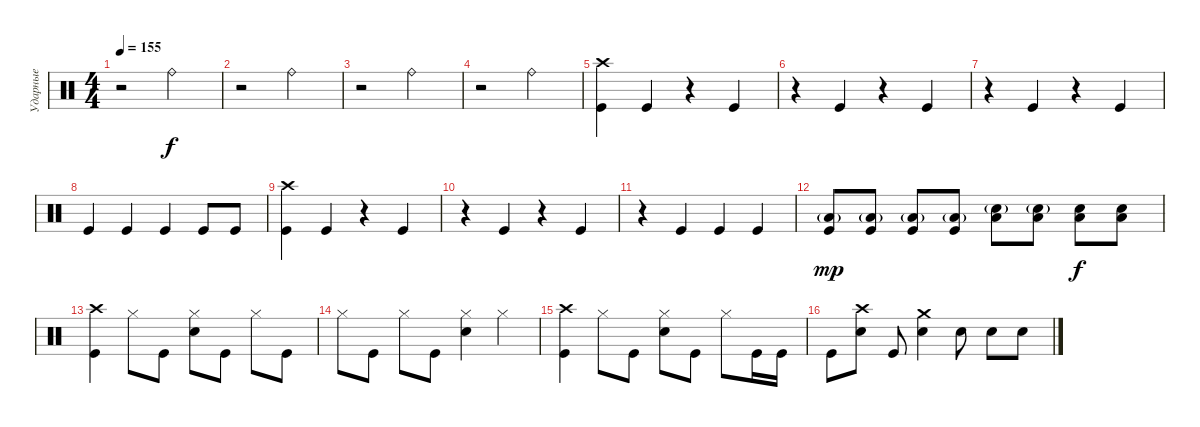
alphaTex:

\track ("Ударные" "Ударные") {instrument percussion}
\staff {score}
\articulation defaults
\ts (4 4)
\tempo 155
\clef neutral
\ks c
r.2{dy f} "Ride (bell)".2 |
r.2 "Ride (bell)".2 |
r.2 "Ride (bell)".2 |
r.2 "Ride (bell)".2 |
("Crash high (hit)" "Kick (hit)").4 "Kick (hit)".4 r.4 "Kick (hit)".4 |
r.4 "Kick (hit)".4 r.4 "Kick (hit)".4 |
r.4 "Kick (hit)".4 r.4 "Kick (hit)".4 |
"Kick (hit)".4 "Kick (hit)".4 "Kick (hit)".4 "Kick (hit)".8 "Kick (hit)".8 |
("Crash high (hit)" "Kick (hit)").4 "Kick (hit)".4 r.4 "Kick (hit)".4 |
r.4 "Kick (hit)".4 r.4 "Kick (hit)".4 |
r.4 "Kick (hit)".4 "Kick (hit)".4 "Kick (hit)".4 |
("Low Tom (hit)"{g} "Kick (hit)").8{dy mp} ("Low Tom (hit)"{g} "Kick (hit)").8 ("Low Tom (hit)"{g} "Kick (hit)").8 ("Low Tom (hit)"{g} "Kick (hit)").8 ("Electric Snare (hit)"{g} "Low Tom (hit)").8 ("Electric Snare (hit)"{g} "Low Tom (hit)").8 ("Electric Snare (hit)" "Low Tom (hit)").8{dy f} ("Electric Snare (hit)" "Low Tom (hit)").8 |
("Crash high (hit)" "Kick (hit)").4 "Hi-Hat (closed)".8 "Kick (hit)".8 ("Hi-Hat (closed)" "Electric Snare (hit)").8 "Kick (hit)".8 "Hi-Hat (closed)".8 "Kick (hit)".8 |
"Hi-Hat (closed)".8 "Kick (hit)".8 "Hi-Hat (closed)".8 "Kick (hit)".8 ("Hi-Hat (closed)" "Electric Snare (hit)").4 "Hi-Hat (closed)".4 |
("Crash high (hit)" "Kick (hit)").4 "Hi-Hat (closed)".8 "Kick (hit)".8 ("Hi-Hat (closed)" "Electric Snare (hit)").8 "Kick (hit)".8 "Hi-Hat (closed)".8 "Kick (hit)".16 "Kick (hit)".16 |
"Kick (hit)".8 ("Crash high (hit)" "Electric Snare (hit)").8 "Kick (hit)".8 ("Crash medium (hit)" "Electric Snare (hit)").4 "Electric Snare (hit)".8 "Electric Snare (hit)".8 "Electric Snare (hit)".8
